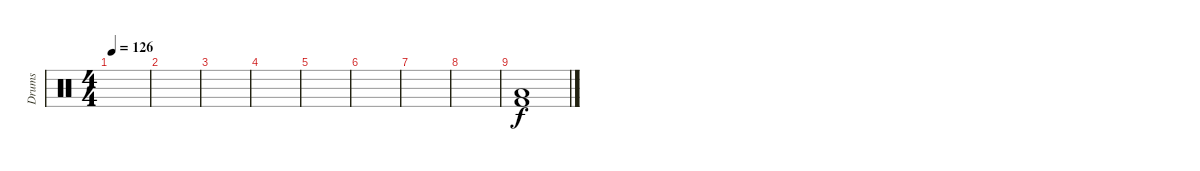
\track ("Drums" "Drums") {instrument percussion}
\staff {score}
\articulation defaults
\ts (4 4)
\tempo 126
\clef neutral
\ks c
|
|
|
|
|
|
|
|
("Low Tom (hit)" "Kick (hit) 2").1
